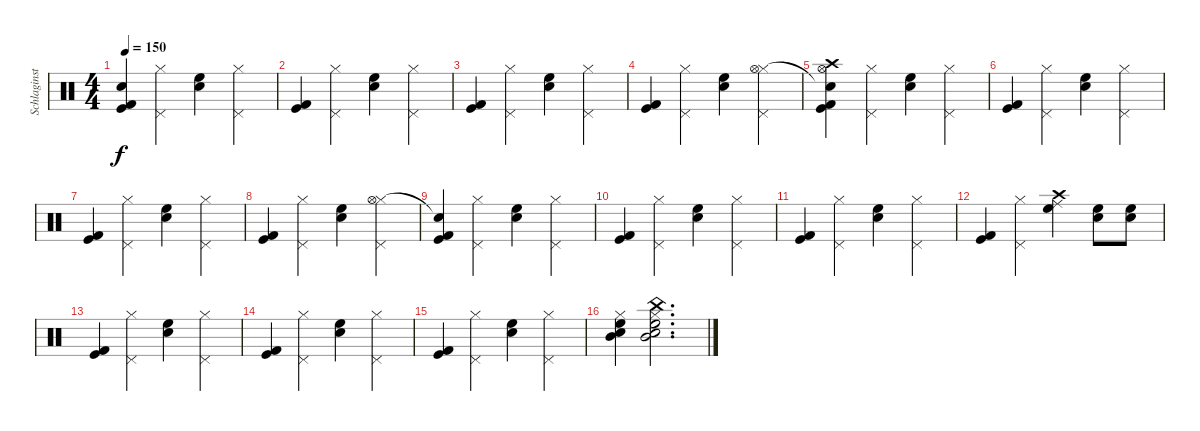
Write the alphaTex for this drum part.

\track ("Schlaginstrumente - Auswahl" "Schlaginst") {instrument percussion}
\staff {score}
\articulation defaults
\ts (4 4)
\tempo 150
\clef neutral
\ks c
("Kick (hit) 2" "Kick (hit)" "Snare (hit)"{t}).4{dy f} ("Pedal Hi-Hat (hit)" "Hi-Hat (closed)").4 ("High Floor Tom (hit)" "Snare (hit) 2").4 ("Pedal Hi-Hat (hit)" "Hi-Hat (closed)").4 |
("Kick (hit) 2" "Kick (hit)").4 ("Pedal Hi-Hat (hit)" "Hi-Hat (closed)").4 ("High Floor Tom (hit)" "Snare (hit) 2").4 ("Pedal Hi-Hat (hit)" "Hi-Hat (closed)").4 |
("Kick (hit) 2" "Kick (hit)").4 ("Pedal Hi-Hat (hit)" "Hi-Hat (closed)").4 ("High Floor Tom (hit)" "Snare (hit) 2").4 ("Pedal Hi-Hat (hit)" "Hi-Hat (closed)").4 |
("Kick (hit) 2" "Kick (hit)").4 ("Pedal Hi-Hat (hit)" "Hi-Hat (closed)").4 ("High Floor Tom (hit)" "Snare (hit) 2").4 ("Pedal Hi-Hat (hit)" "Hi-Hat (closed)" "Hi-Hat (open)").4 |
("Kick (hit) 2" "Kick (hit)" "Snare (hit)"{t} "Hi-Hat (open)" "Crash high (hit)").4 ("Pedal Hi-Hat (hit)" "Hi-Hat (closed)").4 ("High Floor Tom (hit)" "Snare (hit) 2").4 ("Pedal Hi-Hat (hit)" "Hi-Hat (closed)").4 |
("Kick (hit) 2" "Kick (hit)").4 ("Pedal Hi-Hat (hit)" "Hi-Hat (closed)").4 ("High Floor Tom (hit)" "Snare (hit) 2").4 ("Pedal Hi-Hat (hit)" "Hi-Hat (closed)").4 |
("Kick (hit) 2" "Kick (hit)").4 ("Pedal Hi-Hat (hit)" "Hi-Hat (closed)").4 ("High Floor Tom (hit)" "Snare (hit) 2").4 ("Pedal Hi-Hat (hit)" "Hi-Hat (closed)").4 |
("Kick (hit) 2" "Kick (hit)").4 ("Pedal Hi-Hat (hit)" "Hi-Hat (closed)").4 ("High Floor Tom (hit)" "Snare (hit) 2").4 ("Pedal Hi-Hat (hit)" "Hi-Hat (closed)" "Hi-Hat (open)").4 |
("Kick (hit) 2" "Kick (hit)" "Snare (hit)"{t}).4 ("Pedal Hi-Hat (hit)" "Hi-Hat (closed)").4 ("High Floor Tom (hit)" "Snare (hit) 2").4 ("Pedal Hi-Hat (hit)" "Hi-Hat (closed)").4 |
("Kick (hit) 2" "Kick (hit)").4 ("Pedal Hi-Hat (hit)" "Hi-Hat (closed)").4 ("High Floor Tom (hit)" "Snare (hit) 2").4 ("Pedal Hi-Hat (hit)" "Hi-Hat (closed)").4 |
("Kick (hit) 2" "Kick (hit)").4 ("Pedal Hi-Hat (hit)" "Hi-Hat (closed)").4 ("High Floor Tom (hit)" "Snare (hit) 2").4 ("Pedal Hi-Hat (hit)" "Hi-Hat (closed)").4 |
("Kick (hit) 2" "Kick (hit)").4 ("Pedal Hi-Hat (hit)" "Hi-Hat (closed)").4 ("High Floor Tom (hit)" "Ride (middle)" "Crash high (hit)").4 ("Snare (hit) 2" "High Floor Tom (hit)").8 ("Snare (hit) 2" "High Floor Tom (hit)").8 |
("Kick (hit) 2" "Kick (hit)").4 ("Pedal Hi-Hat (hit)" "Hi-Hat (closed)").4 ("High Floor Tom (hit)" "Snare (hit) 2").4 ("Pedal Hi-Hat (hit)" "Hi-Hat (closed)").4 |
("Kick (hit) 2" "Kick (hit)").4 ("Pedal Hi-Hat (hit)" "Hi-Hat (closed)").4 ("High Floor Tom (hit)" "Snare (hit) 2").4 ("Pedal Hi-Hat (hit)" "Hi-Hat (closed)").4 |
("Kick (hit) 2" "Kick (hit)").4 ("Pedal Hi-Hat (hit)" "Hi-Hat (closed)").4 ("High Floor Tom (hit)" "Snare (hit) 2").4 ("Pedal Hi-Hat (hit)" "Hi-Hat (closed)").4 |
("High Floor Tom (hit)" "Snare (hit) 2" "Hi-Hat (closed)" "Mid Tom (hit)").4 ("High Floor Tom (hit)" "Snare (hit) 2" "Hi-Hat (closed)" "Mid Tom (hit)" "China (hit)").2{d}
